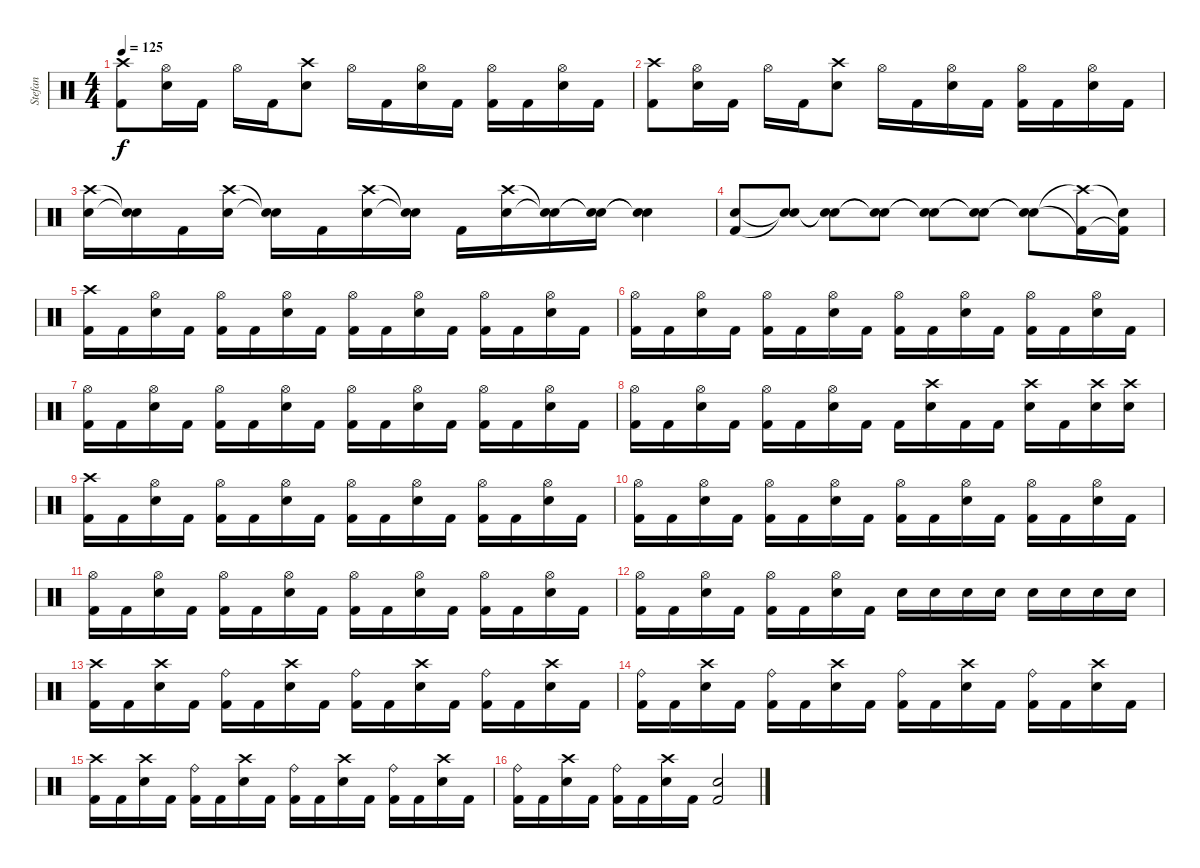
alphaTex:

\track ("Stefan" "Stefan") {instrument percussion}
\staff {score}
\articulation defaults
\ts (4 4)
\tempo 125
\clef neutral
\ks c
("Crash high (hit)" "Kick (hit) 2").8{dy f} ("Hi-Hat (open)" "Electric Snare (hit)").16 "Kick (hit) 2".16 "Hi-Hat (open)".16 "Kick (hit) 2".16 ("Crash high (hit)" "Electric Snare (hit)").8 "Hi-Hat (open)".16 "Kick (hit) 2".16 ("Hi-Hat (open)" "Electric Snare (hit)").16 "Kick (hit) 2".16 ("Hi-Hat (open)" "Kick (hit) 2").16 "Kick (hit) 2".16 ("Hi-Hat (open)" "Electric Snare (hit)").16 "Kick (hit) 2".16 |
("Crash high (hit)" "Kick (hit) 2").8 ("Hi-Hat (open)" "Electric Snare (hit)").16 "Kick (hit) 2".16 "Hi-Hat (open)".16 "Kick (hit) 2".16 ("Crash high (hit)" "Electric Snare (hit)").8 "Hi-Hat (open)".16 "Kick (hit) 2".16 ("Hi-Hat (open)" "Electric Snare (hit)").16 "Kick (hit) 2".16 ("Hi-Hat (open)" "Kick (hit) 2").16 "Kick (hit) 2".16 ("Hi-Hat (open)" "Electric Snare (hit)").16 "Kick (hit) 2".16 |
("Crash high (hit)" "Electric Snare (hit)").16 ("Snare (hit)"{t} "Snare (hit)"{t}).16 "Kick (hit) 2".16 ("Crash high (hit)" "Electric Snare (hit)").16 ("Snare (hit)"{t} "Snare (hit)"{t}).16 "Kick (hit) 2".16 ("Crash high (hit)" "Electric Snare (hit)").16 ("Snare (hit)"{t} "Snare (hit)"{t}).16 "Kick (hit) 2".16 ("Crash high (hit)" "Electric Snare (hit)").16 ("Snare (hit)"{t} "Snare (hit)"{t}).16 ("Snare (hit)"{t} "Snare (hit)"{t}).16 ("Snare (hit)"{t} "Snare (hit)"{t}).4 |
("Electric Snare (hit)" "Kick (hit) 2").8 ("Snare (hit)"{t} "Snare (hit)"{t}).8 ("Snare (hit)"{t} "Snare (hit)"{t}).8 ("Snare (hit)"{t} "Snare (hit)"{t}).8 ("Snare (hit)"{t} "Snare (hit)"{t}).8 ("Snare (hit)"{t} "Snare (hit)"{t}).8 ("Snare (hit)"{t} "Snare (hit)"{t}).8 ("Crash high (hit)"{t} "Kick (hit) 2"{t}).16 ("Snare (hit)"{t} "Kick (hit) 2"{t}).16 |
("Crash high (hit)" "Kick (hit) 2").16 "Kick (hit) 2".16 ("Hi-Hat (open)" "Electric Snare (hit)").16 "Kick (hit) 2".16 ("Hi-Hat (open)" "Kick (hit) 2").16 "Kick (hit) 2".16 ("Hi-Hat (open)" "Electric Snare (hit)").16 "Kick (hit) 2".16 ("Hi-Hat (open)" "Kick (hit) 2").16 "Kick (hit) 2".16 ("Hi-Hat (open)" "Electric Snare (hit)").16 "Kick (hit) 2".16 ("Hi-Hat (open)" "Kick (hit) 2").16 "Kick (hit) 2".16 ("Hi-Hat (open)" "Electric Snare (hit)").16 "Kick (hit) 2".16 |
("Hi-Hat (open)" "Kick (hit) 2").16 "Kick (hit) 2".16 ("Hi-Hat (open)" "Electric Snare (hit)").16 "Kick (hit) 2".16 ("Hi-Hat (open)" "Kick (hit) 2").16 "Kick (hit) 2".16 ("Hi-Hat (open)" "Electric Snare (hit)").16 "Kick (hit) 2".16 ("Hi-Hat (open)" "Kick (hit) 2").16 "Kick (hit) 2".16 ("Hi-Hat (open)" "Electric Snare (hit)").16 "Kick (hit) 2".16 ("Hi-Hat (open)" "Kick (hit) 2").16 "Kick (hit) 2".16 ("Hi-Hat (open)" "Electric Snare (hit)").16 "Kick (hit) 2".16 |
("Hi-Hat (open)" "Kick (hit) 2").16 "Kick (hit) 2".16 ("Hi-Hat (open)" "Electric Snare (hit)").16 "Kick (hit) 2".16 ("Hi-Hat (open)" "Kick (hit) 2").16 "Kick (hit) 2".16 ("Hi-Hat (open)" "Electric Snare (hit)").16 "Kick (hit) 2".16 ("Hi-Hat (open)" "Kick (hit) 2").16 "Kick (hit) 2".16 ("Hi-Hat (open)" "Electric Snare (hit)").16 "Kick (hit) 2".16 ("Hi-Hat (open)" "Kick (hit) 2").16 "Kick (hit) 2".16 ("Hi-Hat (open)" "Electric Snare (hit)").16 "Kick (hit) 2".16 |
("Hi-Hat (open)" "Kick (hit) 2").16 "Kick (hit) 2".16 ("Hi-Hat (open)" "Electric Snare (hit)").16 "Kick (hit) 2".16 ("Hi-Hat (open)" "Kick (hit) 2").16 "Kick (hit) 2".16 ("Hi-Hat (open)" "Electric Snare (hit)").16 "Kick (hit) 2".16 "Kick (hit) 2".16 ("Crash high (hit)" "Electric Snare (hit)").16 "Kick (hit) 2".16 "Kick (hit) 2".16 ("Crash high (hit)" "Electric Snare (hit)").16 "Kick (hit) 2".16 ("Crash high (hit)" "Electric Snare (hit)").16 ("Crash high (hit)" "Electric Snare (hit)").16 |
("Crash high (hit)" "Kick (hit) 2").16 "Kick (hit) 2".16 ("Hi-Hat (open)" "Electric Snare (hit)").16 "Kick (hit) 2".16 ("Hi-Hat (open)" "Kick (hit) 2").16 "Kick (hit) 2".16 ("Hi-Hat (open)" "Electric Snare (hit)").16 "Kick (hit) 2".16 ("Hi-Hat (open)" "Kick (hit) 2").16 "Kick (hit) 2".16 ("Hi-Hat (open)" "Electric Snare (hit)").16 "Kick (hit) 2".16 ("Hi-Hat (open)" "Kick (hit) 2").16 "Kick (hit) 2".16 ("Hi-Hat (open)" "Electric Snare (hit)").16 "Kick (hit) 2".16 |
("Hi-Hat (open)" "Kick (hit) 2").16 "Kick (hit) 2".16 ("Hi-Hat (open)" "Electric Snare (hit)").16 "Kick (hit) 2".16 ("Hi-Hat (open)" "Kick (hit) 2").16 "Kick (hit) 2".16 ("Hi-Hat (open)" "Electric Snare (hit)").16 "Kick (hit) 2".16 ("Hi-Hat (open)" "Kick (hit) 2").16 "Kick (hit) 2".16 ("Hi-Hat (open)" "Electric Snare (hit)").16 "Kick (hit) 2".16 ("Hi-Hat (open)" "Kick (hit) 2").16 "Kick (hit) 2".16 ("Hi-Hat (open)" "Electric Snare (hit)").16 "Kick (hit) 2".16 |
("Hi-Hat (open)" "Kick (hit) 2").16 "Kick (hit) 2".16 ("Hi-Hat (open)" "Electric Snare (hit)").16 "Kick (hit) 2".16 ("Hi-Hat (open)" "Kick (hit) 2").16 "Kick (hit) 2".16 ("Hi-Hat (open)" "Electric Snare (hit)").16 "Kick (hit) 2".16 ("Hi-Hat (open)" "Kick (hit) 2").16 "Kick (hit) 2".16 ("Hi-Hat (open)" "Electric Snare (hit)").16 "Kick (hit) 2".16 ("Hi-Hat (open)" "Kick (hit) 2").16 "Kick (hit) 2".16 ("Hi-Hat (open)" "Electric Snare (hit)").16 "Kick (hit) 2".16 |
("Hi-Hat (open)" "Kick (hit) 2").16 "Kick (hit) 2".16 ("Hi-Hat (open)" "Electric Snare (hit)").16 "Kick (hit) 2".16 ("Hi-Hat (open)" "Kick (hit) 2").16 "Kick (hit) 2".16 ("Hi-Hat (open)" "Electric Snare (hit)").16 "Kick (hit) 2".16 "Electric Snare (hit)".16 "Electric Snare (hit)".16 "Electric Snare (hit)".16 "Electric Snare (hit)".16 "Electric Snare (hit)".16 "Electric Snare (hit)".16 "Electric Snare (hit)".16 "Electric Snare (hit)".16 |
("Crash high (hit)" "Kick (hit) 2").16 "Kick (hit) 2".16 ("Crash high (hit)" "Electric Snare (hit)").16 "Kick (hit) 2".16 ("Ride (bell)" "Kick (hit) 2").16 "Kick (hit) 2".16 ("Crash high (hit)" "Electric Snare (hit)").16 "Kick (hit) 2".16 ("Ride (bell)" "Kick (hit) 2").16 "Kick (hit) 2".16 ("Crash high (hit)" "Electric Snare (hit)").16 "Kick (hit) 2".16 ("Ride (bell)" "Kick (hit) 2").16 "Kick (hit) 2".16 ("Crash high (hit)" "Electric Snare (hit)").16 "Kick (hit) 2".16 |
("Ride (bell)" "Kick (hit) 2").16 "Kick (hit) 2".16 ("Crash high (hit)" "Electric Snare (hit)").16 "Kick (hit) 2".16 ("Ride (bell)" "Kick (hit) 2").16 "Kick (hit) 2".16 ("Crash high (hit)" "Electric Snare (hit)").16 "Kick (hit) 2".16 ("Ride (bell)" "Kick (hit) 2").16 "Kick (hit) 2".16 ("Crash high (hit)" "Electric Snare (hit)").16 "Kick (hit) 2".16 ("Ride (bell)" "Kick (hit) 2").16 "Kick (hit) 2".16 ("Crash high (hit)" "Electric Snare (hit)").16 "Kick (hit) 2".16 |
("Crash high (hit)" "Kick (hit) 2").16 "Kick (hit) 2".16 ("Crash high (hit)" "Electric Snare (hit)").16 "Kick (hit) 2".16 ("Ride (bell)" "Kick (hit) 2").16 "Kick (hit) 2".16 ("Crash high (hit)" "Electric Snare (hit)").16 "Kick (hit) 2".16 ("Ride (bell)" "Kick (hit) 2").16 "Kick (hit) 2".16 ("Crash high (hit)" "Electric Snare (hit)").16 "Kick (hit) 2".16 ("Ride (bell)" "Kick (hit) 2").16 "Kick (hit) 2".16 ("Crash high (hit)" "Electric Snare (hit)").16 "Kick (hit) 2".16 |
("Ride (bell)" "Kick (hit) 2").16 "Kick (hit) 2".16 ("Crash high (hit)" "Electric Snare (hit)").16 "Kick (hit) 2".16 ("Ride (bell)" "Kick (hit) 2").16 "Kick (hit) 2".16 ("Crash high (hit)" "Electric Snare (hit)").16 "Kick (hit) 2".16 ("Kick (hit) 2" "Electric Snare (hit)").2
